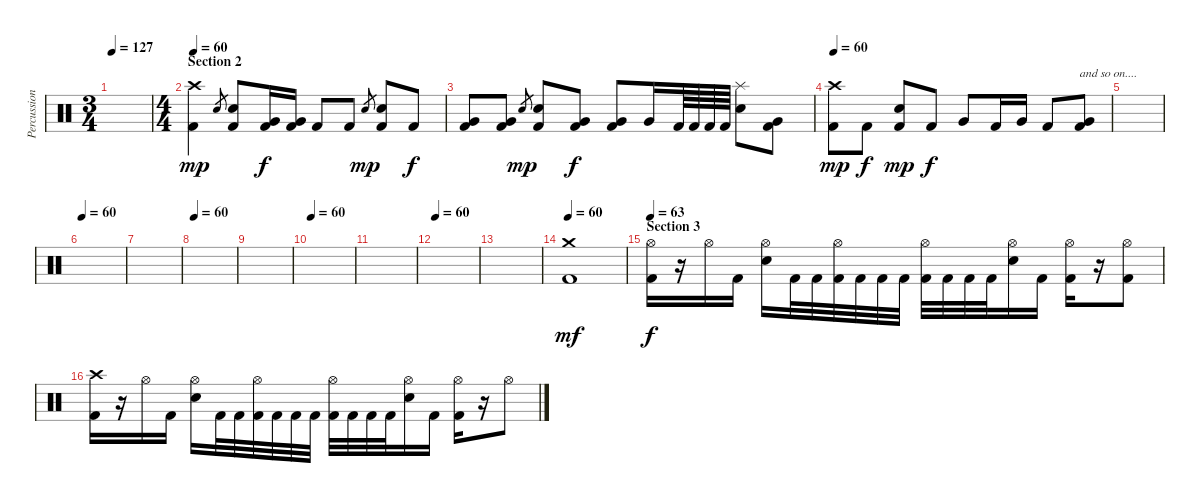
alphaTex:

\track ("Percussion" "Percussion") {instrument percussion}
\staff {score}
\articulation defaults
\ts (3 4)
\tempo 127
\clef neutral
\ks c
|
\ts (4 4)
\section ("" "Section 2")
\tempo 60
("Crash high (hit)" "Kick (hit) 2").4{dy mp} "Electric Snare (hit)".8{gr} ("Electric Snare (hit)" "Kick (hit) 2").8 ("Very Low Tom (hit)" "Kick (hit) 2").16{dy f} ("Very Low Tom (hit)" "Kick (hit) 2").16 "Kick (hit) 2".8 "Kick (hit) 2".8 "Electric Snare (hit)".8{gr dy mp} ("Electric Snare (hit)" "Kick (hit) 2").8 "Kick (hit) 2".8{dy f} |
("Very Low Tom (hit)" "Kick (hit) 2").8 ("Very Low Tom (hit)" "Kick (hit) 2").8 "Electric Snare (hit)".8{gr dy mp} ("Electric Snare (hit)" "Kick (hit) 2").8 ("Very Low Tom (hit)" "Kick (hit) 2").8{dy f} ("Very Low Tom (hit)" "Kick (hit) 2").8 "Very Low Tom (hit)".16 "Kick (hit) 2".64 "Kick (hit) 2".64 "Kick (hit) 2".64 "Kick (hit) 2".64 ("Splash (hit)" "Electric Snare (hit)").8 ("Very Low Tom (hit)" "Kick (hit) 2").8 |
\tempo 60
("Crash high (hit)" "Kick (hit) 2").8{dy mp} "Kick (hit) 2".8{dy f} ("Electric Snare (hit)" "Kick (hit) 2").8{dy mp} "Kick (hit) 2".8{dy f} "Very Low Tom (hit)".8 "Kick (hit) 2".16 "Very Low Tom (hit)".16 "Kick (hit) 2".8 ("Very Low Tom (hit)" "Kick (hit) 2").8{txt "and so on...."} |
|
\tempo 60
|
|
\tempo 60
|
|
\tempo 60
|
|
\tempo 60
|
|
\tempo 60
("Crash medium (hit)" "Kick (hit) 2").1{dy mf} |
\section ("" "Section 3")
\tempo 63
("Hi-Hat (open)" "Kick (hit) 2").16{dy f} r.16 "Hi-Hat (open)".16 "Kick (hit) 2".16 ("Hi-Hat (open)" "Electric Snare (hit)").16 "Kick (hit) 2".32 "Kick (hit) 2".32 ("Hi-Hat (open)" "Kick (hit) 2").32 "Kick (hit) 2".32 "Kick (hit) 2".32 "Kick (hit) 2".32 ("Hi-Hat (open)" "Kick (hit) 2").32 "Kick (hit) 2".32 "Kick (hit) 2".32 "Kick (hit) 2".32 ("Hi-Hat (open)" "Electric Snare (hit)").16 "Kick (hit) 2".16 ("Hi-Hat (open)" "Kick (hit) 2").16 r.16 ("Hi-Hat (open)" "Kick (hit) 2").8 |
("Crash high (hit)" "Kick (hit) 2").16 r.16 "Hi-Hat (open)".16 "Kick (hit) 2".16 ("Hi-Hat (open)" "Electric Snare (hit)").16 "Kick (hit) 2".32 "Kick (hit) 2".32 ("Hi-Hat (open)" "Kick (hit) 2").32 "Kick (hit) 2".32 "Kick (hit) 2".32 "Kick (hit) 2".32 ("Hi-Hat (open)" "Kick (hit) 2").32 "Kick (hit) 2".32 "Kick (hit) 2".32 "Kick (hit) 2".32 ("Hi-Hat (open)" "Electric Snare (hit)").16 "Kick (hit) 2".16 ("Hi-Hat (open)" "Kick (hit) 2").16 r.16 "Hi-Hat (open)".8
